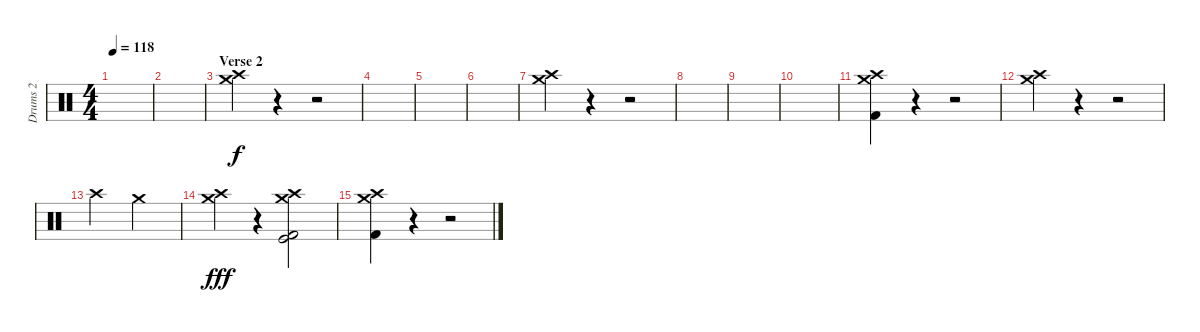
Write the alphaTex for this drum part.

\track ("Drums 2" "Drums 2") {instrument percussion}
\staff {score}
\articulation defaults
\ts (4 4)
\tempo 118
\clef neutral
\ks c
|
|
\section ("" "Verse 2")
("Crash high (hit)" "Crash medium (hit)").4 r.4 r.2 |
|
|
|
("Crash high (hit)" "Crash medium (hit)").4 r.4 r.2 |
|
|
|
("Crash high (hit)" "Crash medium (hit)" "Kick (hit) 2").4 r.4 r.2 |
("Crash high (hit)" "Crash medium (hit)").4 r.4 r.2 |
"Crash high (hit)".2{dy f} "Crash medium (hit)".2 |
("Crash high (hit)" "Crash medium (hit)").4{dy fff} r.4 ("Crash medium (hit)" "Crash high (hit)" "Kick (hit)" "Kick (hit) 2").2 |
("Crash high (hit)" "Crash medium (hit)" "Kick (hit) 2").4 r.4 r.2
